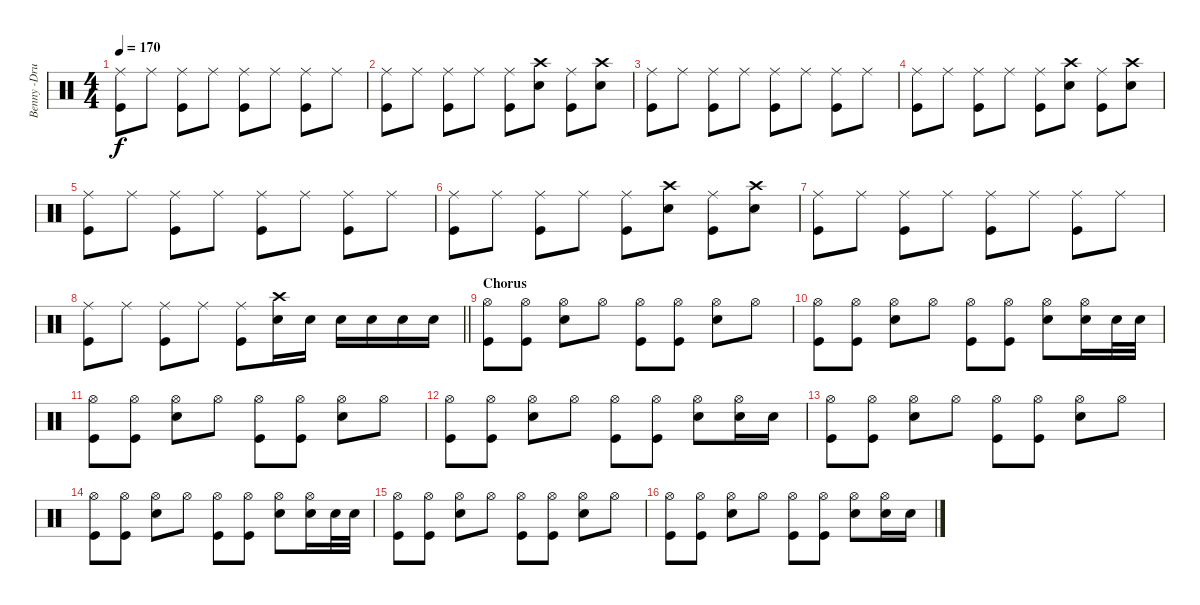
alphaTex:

\track ("Benny -Drums" "Benny -Dru") {instrument percussion}
\staff {score}
\articulation defaults
\ts (4 4)
\tempo 170
\clef neutral
\ks c
("Ride (middle)" "Kick (hit)").8{dy f} "Ride (middle)".8 ("Ride (middle)" "Kick (hit)").8 "Ride (middle)".8 ("Ride (middle)" "Kick (hit)").8 "Ride (middle)".8 ("Ride (middle)" "Kick (hit)").8 "Ride (middle)".8 |
("Ride (middle)" "Kick (hit)").8 "Ride (middle)".8 ("Ride (middle)" "Kick (hit)").8 "Ride (middle)".8 ("Ride (middle)" "Kick (hit)").8 ("Crash high (hit)" "Electric Snare (hit)").8 ("Ride (middle)" "Kick (hit)").8 ("Crash high (hit)" "Electric Snare (hit)").8 |
("Ride (middle)" "Kick (hit)").8 "Ride (middle)".8 ("Ride (middle)" "Kick (hit)").8 "Ride (middle)".8 ("Ride (middle)" "Kick (hit)").8 "Ride (middle)".8 ("Ride (middle)" "Kick (hit)").8 "Ride (middle)".8 |
("Ride (middle)" "Kick (hit)").8 "Ride (middle)".8 ("Ride (middle)" "Kick (hit)").8 "Ride (middle)".8 ("Ride (middle)" "Kick (hit)").8 ("Crash high (hit)" "Electric Snare (hit)").8 ("Ride (middle)" "Kick (hit)").8 ("Crash high (hit)" "Electric Snare (hit)").8 |
("Ride (middle)" "Kick (hit)").8 "Ride (middle)".8 ("Ride (middle)" "Kick (hit)").8 "Ride (middle)".8 ("Ride (middle)" "Kick (hit)").8 "Ride (middle)".8 ("Ride (middle)" "Kick (hit)").8 "Ride (middle)".8 |
("Ride (middle)" "Kick (hit)").8 "Ride (middle)".8 ("Ride (middle)" "Kick (hit)").8 "Ride (middle)".8 ("Ride (middle)" "Kick (hit)").8 ("Crash high (hit)" "Electric Snare (hit)").8 ("Ride (middle)" "Kick (hit)").8 ("Crash high (hit)" "Electric Snare (hit)").8 |
("Ride (middle)" "Kick (hit)").8 "Ride (middle)".8 ("Ride (middle)" "Kick (hit)").8 "Ride (middle)".8 ("Ride (middle)" "Kick (hit)").8 "Ride (middle)".8 ("Ride (middle)" "Kick (hit)").8 "Ride (middle)".8 |
\barLineRight lightlight
("Ride (middle)" "Kick (hit)").8 "Ride (middle)".8 ("Ride (middle)" "Kick (hit)").8 "Ride (middle)".8 ("Ride (middle)" "Kick (hit)").8 ("Crash high (hit)" "Electric Snare (hit)").16 "Electric Snare (hit)".16 "Electric Snare (hit)".16 "Electric Snare (hit)".16 "Electric Snare (hit)".16 "Electric Snare (hit)".16 |
\section ("" "Chorus")
("Hi-Hat (open)" "Kick (hit)").8 ("Hi-Hat (open)" "Kick (hit)").8 ("Hi-Hat (open)" "Snare (hit) 2").8 "Hi-Hat (open)".8 ("Hi-Hat (open)" "Kick (hit)").8 ("Hi-Hat (open)" "Kick (hit)").8 ("Hi-Hat (open)" "Snare (hit) 2").8 "Hi-Hat (open)".8 |
("Hi-Hat (open)" "Kick (hit)").8 ("Hi-Hat (open)" "Kick (hit)").8 ("Hi-Hat (open)" "Snare (hit) 2").8 "Hi-Hat (open)".8 ("Hi-Hat (open)" "Kick (hit)").8 ("Hi-Hat (open)" "Kick (hit)").8 ("Hi-Hat (open)" "Snare (hit) 2").8 ("Hi-Hat (open)" "Snare (hit) 2").16 "Snare (hit) 2".32 "Snare (hit) 2".32 |
("Hi-Hat (open)" "Kick (hit)").8 ("Hi-Hat (open)" "Kick (hit)").8 ("Hi-Hat (open)" "Snare (hit) 2").8 "Hi-Hat (open)".8 ("Hi-Hat (open)" "Kick (hit)").8 ("Hi-Hat (open)" "Kick (hit)").8 ("Hi-Hat (open)" "Snare (hit) 2").8 "Hi-Hat (open)".8 |
("Hi-Hat (open)" "Kick (hit)").8 ("Hi-Hat (open)" "Kick (hit)").8 ("Hi-Hat (open)" "Snare (hit) 2").8 "Hi-Hat (open)".8 ("Hi-Hat (open)" "Kick (hit)").8 ("Hi-Hat (open)" "Kick (hit)").8 ("Hi-Hat (open)" "Snare (hit) 2").8 ("Hi-Hat (open)" "Snare (hit) 2").16 "Snare (hit) 2".16 |
("Hi-Hat (open)" "Kick (hit)").8 ("Hi-Hat (open)" "Kick (hit)").8 ("Hi-Hat (open)" "Snare (hit) 2").8 "Hi-Hat (open)".8 ("Hi-Hat (open)" "Kick (hit)").8 ("Hi-Hat (open)" "Kick (hit)").8 ("Hi-Hat (open)" "Snare (hit) 2").8 "Hi-Hat (open)".8 |
("Hi-Hat (open)" "Kick (hit)").8 ("Hi-Hat (open)" "Kick (hit)").8 ("Hi-Hat (open)" "Snare (hit) 2").8 "Hi-Hat (open)".8 ("Hi-Hat (open)" "Kick (hit)").8 ("Hi-Hat (open)" "Kick (hit)").8 ("Hi-Hat (open)" "Snare (hit) 2").8 ("Hi-Hat (open)" "Snare (hit) 2").16 "Snare (hit) 2".32 "Snare (hit) 2".32 |
("Hi-Hat (open)" "Kick (hit)").8 ("Hi-Hat (open)" "Kick (hit)").8 ("Hi-Hat (open)" "Snare (hit) 2").8 "Hi-Hat (open)".8 ("Hi-Hat (open)" "Kick (hit)").8 ("Hi-Hat (open)" "Kick (hit)").8 ("Hi-Hat (open)" "Snare (hit) 2").8 "Hi-Hat (open)".8 |
("Hi-Hat (open)" "Kick (hit)").8 ("Hi-Hat (open)" "Kick (hit)").8 ("Hi-Hat (open)" "Snare (hit) 2").8 "Hi-Hat (open)".8 ("Hi-Hat (open)" "Kick (hit)").8 ("Hi-Hat (open)" "Kick (hit)").8 ("Hi-Hat (open)" "Snare (hit) 2").8 ("Hi-Hat (open)" "Snare (hit) 2").16 "Snare (hit) 2".16
